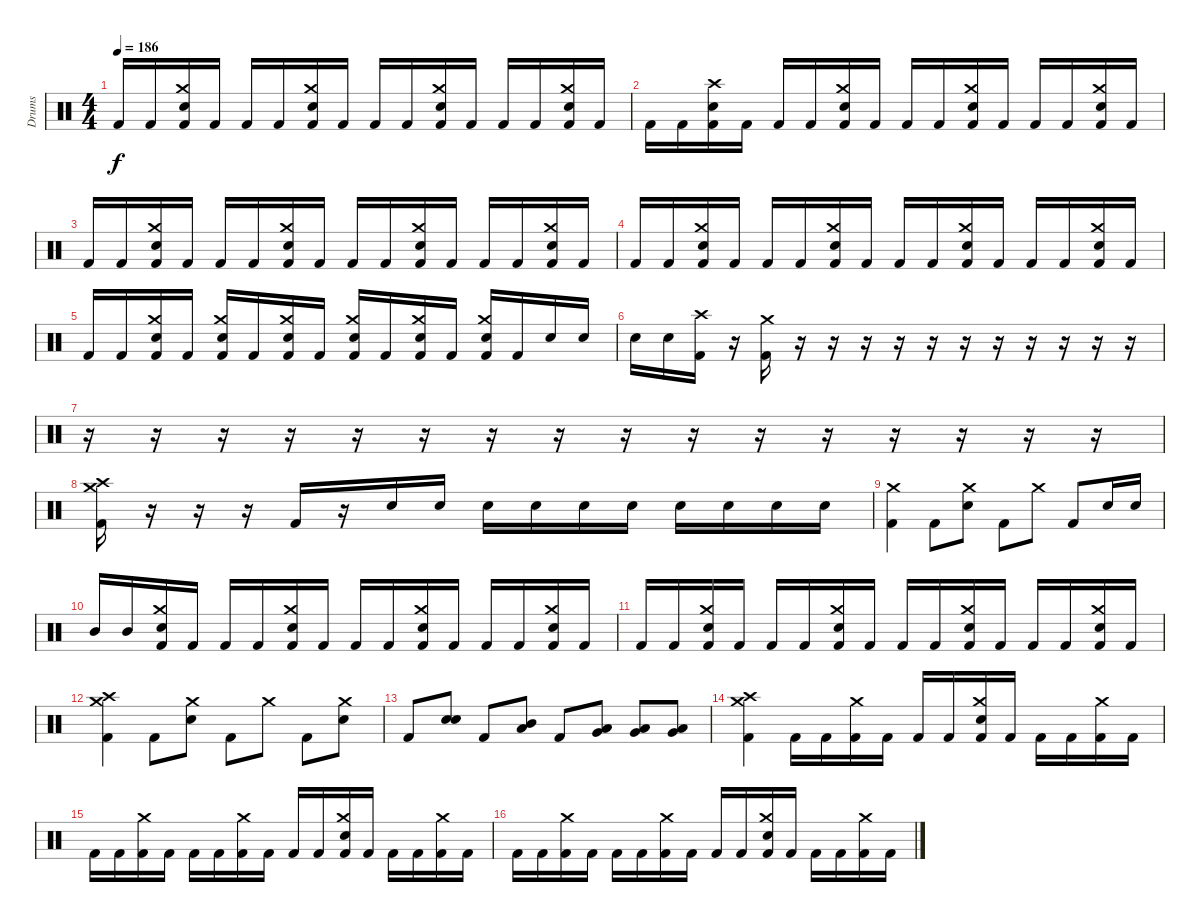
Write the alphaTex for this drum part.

\track ("Drums" "Drums") {instrument percussion bank 177}
\staff {score}
\articulation defaults
\ts (4 4)
\tempo 186
\clef neutral
\ks c "Kick (hit) 2".16{dy f} "Kick (hit) 2".16
("Crash medium (hit)" "Snare (hit) 2" "Kick (hit) 2").16 "Kick (hit) 2".16 "Kick (hit) 2".16 "Kick (hit) 2".16 ("Crash medium (hit)" "Snare (hit) 2" "Kick (hit) 2").16 "Kick (hit) 2".16 "Kick (hit) 2".16 "Kick (hit) 2".16 ("Crash medium (hit)" "Snare (hit) 2" "Kick (hit) 2").16 "Kick (hit) 2".16 "Kick (hit) 2".16 "Kick (hit) 2".16 ("Crash medium (hit)" "Snare (hit) 2" "Kick (hit) 2").16 "Kick (hit) 2".16 |
"Kick (hit) 2".16 "Kick (hit) 2".16 ("Crash high (hit)" "Snare (hit) 2" "Kick (hit) 2").16 "Kick (hit) 2".16 "Kick (hit) 2".16 "Kick (hit) 2".16 ("Crash medium (hit)" "Snare (hit) 2" "Kick (hit) 2").16 "Kick (hit) 2".16 "Kick (hit) 2".16 "Kick (hit) 2".16 ("Crash medium (hit)" "Snare (hit) 2" "Kick (hit) 2").16 "Kick (hit) 2".16 "Kick (hit) 2".16 "Kick (hit) 2".16 ("Crash medium (hit)" "Snare (hit) 2" "Kick (hit) 2").16 "Kick (hit) 2".16 |
"Kick (hit) 2".16 "Kick (hit) 2".16 ("Crash medium (hit)" "Snare (hit) 2" "Kick (hit) 2").16 "Kick (hit) 2".16 "Kick (hit) 2".16 "Kick (hit) 2".16 ("Crash medium (hit)" "Snare (hit) 2" "Kick (hit) 2").16 "Kick (hit) 2".16 "Kick (hit) 2".16 "Kick (hit) 2".16 ("Crash medium (hit)" "Snare (hit) 2" "Kick (hit) 2").16 "Kick (hit) 2".16 "Kick (hit) 2".16 "Kick (hit) 2".16 ("Crash medium (hit)" "Snare (hit) 2" "Kick (hit) 2").16 "Kick (hit) 2".16 |
"Kick (hit) 2".16 "Kick (hit) 2".16 ("Crash medium (hit)" "Snare (hit) 2" "Kick (hit) 2").16 "Kick (hit) 2".16 "Kick (hit) 2".16 "Kick (hit) 2".16 ("Crash medium (hit)" "Snare (hit) 2" "Kick (hit) 2").16 "Kick (hit) 2".16 "Kick (hit) 2".16 "Kick (hit) 2".16 ("Crash medium (hit)" "Snare (hit) 2" "Kick (hit) 2").16 "Kick (hit) 2".16 "Kick (hit) 2".16 "Kick (hit) 2".16 ("Crash medium (hit)" "Snare (hit) 2" "Kick (hit) 2").16 "Kick (hit) 2".16 |
"Kick (hit) 2".16 "Kick (hit) 2".16 ("Crash medium (hit)" "Snare (hit) 2" "Kick (hit) 2").16 "Kick (hit) 2".16 ("Crash medium (hit)" "Snare (hit) 2" "Kick (hit) 2").16 "Kick (hit) 2".16 ("Crash medium (hit)" "Snare (hit) 2" "Kick (hit) 2").16 "Kick (hit) 2".16 ("Crash medium (hit)" "Snare (hit) 2" "Kick (hit) 2").16 "Kick (hit) 2".16 ("Crash medium (hit)" "Snare (hit) 2" "Kick (hit) 2").16 "Kick (hit) 2".16 ("Crash medium (hit)" "Snare (hit) 2" "Kick (hit) 2").16 "Kick (hit) 2".16 "Snare (hit) 2".16 "Snare (hit) 2".16 |
"Snare (hit) 2".16 "Snare (hit) 2".16 ("Crash high (hit)" "Kick (hit) 2").16 r.16 ("Crash medium (hit)" "Kick (hit) 2").16 r.16 r.16 r.16 r.16 r.16 r.16 r.16 r.16 r.16 r.16 r.16 |
r.16 r.16 r.16 r.16 r.16 r.16 r.16 r.16 r.16 r.16 r.16 r.16 r.16 r.16 r.16 r.16 |
("Crash high (hit)" "Crash medium (hit)" "Kick (hit) 2").16 r.16 r.16 r.16 "Kick (hit) 2".16 r.16 "Snare (hit) 2".16 "Snare (hit) 2".16 "Snare (hit) 2".16 "Snare (hit) 2".16 "Snare (hit) 2".16 "Snare (hit) 2".16 "Snare (hit) 2".16 "Snare (hit) 2".16 "Snare (hit) 2".16 "Snare (hit) 2".16 |
("Crash medium (hit)" "Kick (hit) 2").4 "Kick (hit) 2".8 ("Crash medium (hit)" "Snare (hit) 2").8 "Kick (hit) 2".8 "Crash medium (hit)".8 "Kick (hit) 2".8 "Snare (hit) 2".16 "Snare (hit) 2".16 |
"Mid Tom (hit)".16 "Mid Tom (hit)".16 ("Crash medium (hit)" "Snare (hit) 2" "Kick (hit) 2").16 "Kick (hit) 2".16 "Kick (hit) 2".16 "Kick (hit) 2".16 ("Crash medium (hit)" "Snare (hit) 2" "Kick (hit) 2").16 "Kick (hit) 2".16 "Kick (hit) 2".16 "Kick (hit) 2".16 ("Crash medium (hit)" "Snare (hit) 2" "Kick (hit) 2").16 "Kick (hit) 2".16 "Kick (hit) 2".16 "Kick (hit) 2".16 ("Crash medium (hit)" "Snare (hit) 2" "Kick (hit) 2").16 "Kick (hit) 2".16 |
"Kick (hit) 2".16 "Kick (hit) 2".16 ("Crash medium (hit)" "Snare (hit) 2" "Kick (hit) 2").16 "Kick (hit) 2".16 "Kick (hit) 2".16 "Kick (hit) 2".16 ("Crash medium (hit)" "Snare (hit) 2" "Kick (hit) 2").16 "Kick (hit) 2".16 "Kick (hit) 2".16 "Kick (hit) 2".16 ("Crash medium (hit)" "Snare (hit) 2" "Kick (hit) 2").16 "Kick (hit) 2".16 "Kick (hit) 2".16 "Kick (hit) 2".16 ("Crash medium (hit)" "Snare (hit) 2" "Kick (hit) 2").16 "Kick (hit) 2".16 |
("Crash high (hit)" "Crash medium (hit)" "Kick (hit) 2").4 "Kick (hit) 2".8 ("Crash medium (hit)" "Snare (hit) 2").8 "Kick (hit) 2".8 "Crash medium (hit)".8 "Kick (hit) 2".8 ("Crash medium (hit)" "Snare (hit) 2").8 |
"Kick (hit) 2".8 ("Snare (hit) 2" "Snare (hit) 2").8 "Kick (hit) 2".8 ("Mid Tom (hit)" "Low Tom (hit)").8 "Kick (hit) 2".8 ("Low Tom (hit)" "Very Low Tom (hit)").8 ("Low Tom (hit)" "Very Low Tom (hit)").8 ("Low Tom (hit)" "Very Low Tom (hit)").8 |
("Crash high (hit)" "Crash medium (hit)" "Kick (hit) 2").4 "Kick (hit) 2".16 "Kick (hit) 2".16 ("Crash medium (hit)" "Kick (hit) 2").16 "Kick (hit) 2".16 "Kick (hit) 2".16 "Kick (hit) 2".16 ("Crash medium (hit)" "Snare (hit) 2" "Kick (hit) 2").16 "Kick (hit) 2".16 "Kick (hit) 2".16 "Kick (hit) 2".16 ("Crash medium (hit)" "Kick (hit) 2").16 "Kick (hit) 2".16 |
"Kick (hit) 2".16 "Kick (hit) 2".16 ("Crash medium (hit)" "Kick (hit) 2").16 "Kick (hit) 2".16 "Kick (hit) 2".16 "Kick (hit) 2".16 ("Crash medium (hit)" "Kick (hit) 2").16 "Kick (hit) 2".16 "Kick (hit) 2".16 "Kick (hit) 2".16 ("Crash medium (hit)" "Snare (hit) 2" "Kick (hit) 2").16 "Kick (hit) 2".16 "Kick (hit) 2".16 "Kick (hit) 2".16 ("Crash medium (hit)" "Kick (hit) 2").16 "Kick (hit) 2".16 |
"Kick (hit) 2".16 "Kick (hit) 2".16 ("Crash medium (hit)" "Kick (hit) 2").16 "Kick (hit) 2".16 "Kick (hit) 2".16 "Kick (hit) 2".16 ("Crash medium (hit)" "Kick (hit) 2").16 "Kick (hit) 2".16 "Kick (hit) 2".16 "Kick (hit) 2".16 ("Crash medium (hit)" "Snare (hit) 2" "Kick (hit) 2").16 "Kick (hit) 2".16 "Kick (hit) 2".16 "Kick (hit) 2".16 ("Crash medium (hit)" "Kick (hit) 2").16 "Kick (hit) 2".16
